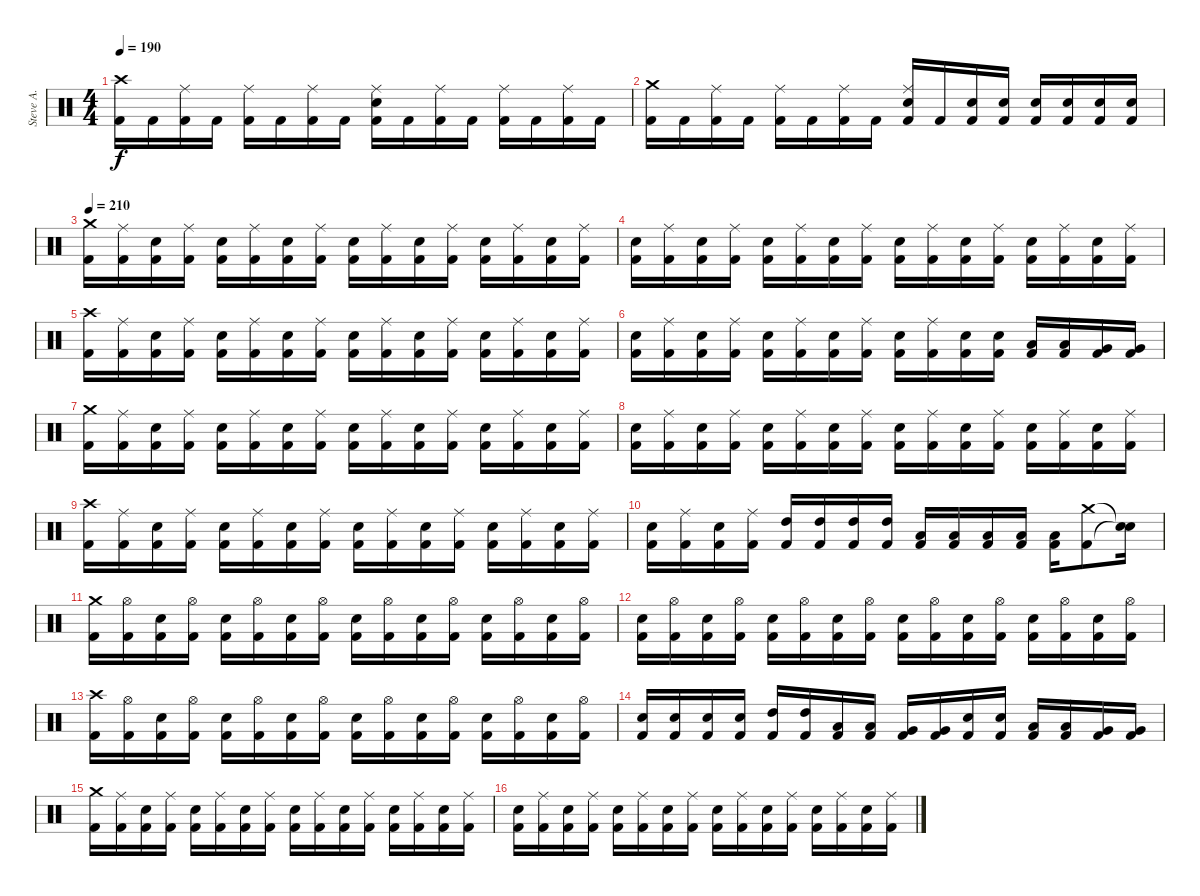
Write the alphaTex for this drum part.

\track ("Steve A." "Steve A.") {instrument percussion}
\staff {score}
\articulation defaults
\ts (4 4)
\tempo 190
\clef neutral
\ks c
("Kick (hit) 2" "Crash high (hit)").16{dy f} "Kick (hit) 2".16 ("Kick (hit) 2" "Ride (middle)").16 "Kick (hit) 2".16 ("Kick (hit) 2" "Ride (middle)").16 "Kick (hit) 2".16 ("Kick (hit) 2" "Ride (middle)").16 "Kick (hit) 2".16 ("Kick (hit) 2" "Ride (middle)" "Electric Snare (hit)").16 "Kick (hit) 2".16 ("Kick (hit) 2" "Ride (middle)").16 "Kick (hit) 2".16 ("Kick (hit) 2" "Ride (middle)").16 "Kick (hit) 2".16 ("Kick (hit) 2" "Ride (middle)").16 "Kick (hit) 2".16 |
("Kick (hit) 2" "Crash medium (hit)").16 "Kick (hit) 2".16 ("Kick (hit) 2" "Ride (middle)").16 "Kick (hit) 2".16 ("Kick (hit) 2" "Ride (middle)").16 "Kick (hit) 2".16 ("Kick (hit) 2" "Ride (middle)").16 "Kick (hit) 2".16 ("Kick (hit) 2" "Ride (middle)" "Electric Snare (hit)").16 "Kick (hit) 2".16 ("Kick (hit) 2" "Electric Snare (hit)").16 ("Kick (hit) 2" "Electric Snare (hit)").16 ("Kick (hit) 2" "Electric Snare (hit)").16 ("Kick (hit) 2" "Electric Snare (hit)").16 ("Kick (hit) 2" "Electric Snare (hit)").16 ("Kick (hit) 2" "Electric Snare (hit)").16 |
\tempo 210
("Kick (hit) 2" "Crash medium (hit)").16 ("Kick (hit) 2" "Ride (middle)").16 ("Kick (hit) 2" "Electric Snare (hit)").16 ("Kick (hit) 2" "Ride (middle)").16 ("Kick (hit) 2" "Electric Snare (hit)").16 ("Kick (hit) 2" "Ride (middle)").16 ("Kick (hit) 2" "Electric Snare (hit)").16 ("Kick (hit) 2" "Ride (middle)").16 ("Kick (hit) 2" "Electric Snare (hit)").16 ("Kick (hit) 2" "Ride (middle)").16 ("Kick (hit) 2" "Electric Snare (hit)").16 ("Kick (hit) 2" "Ride (middle)").16 ("Kick (hit) 2" "Electric Snare (hit)").16 ("Kick (hit) 2" "Ride (middle)").16 ("Kick (hit) 2" "Electric Snare (hit)").16 ("Kick (hit) 2" "Ride (middle)").16 |
("Kick (hit) 2" "Electric Snare (hit)").16 ("Kick (hit) 2" "Ride (middle)").16 ("Kick (hit) 2" "Electric Snare (hit)").16 ("Kick (hit) 2" "Ride (middle)").16 ("Kick (hit) 2" "Electric Snare (hit)").16 ("Kick (hit) 2" "Ride (middle)").16 ("Kick (hit) 2" "Electric Snare (hit)").16 ("Kick (hit) 2" "Ride (middle)").16 ("Kick (hit) 2" "Electric Snare (hit)").16 ("Kick (hit) 2" "Ride (middle)").16 ("Kick (hit) 2" "Electric Snare (hit)").16 ("Kick (hit) 2" "Ride (middle)").16 ("Kick (hit) 2" "Electric Snare (hit)").16 ("Kick (hit) 2" "Ride (middle)").16 ("Kick (hit) 2" "Electric Snare (hit)").16 ("Kick (hit) 2" "Ride (middle)").16 |
("Kick (hit) 2" "Crash high (hit)").16 ("Kick (hit) 2" "Ride (middle)").16 ("Kick (hit) 2" "Electric Snare (hit)").16 ("Kick (hit) 2" "Ride (middle)").16 ("Kick (hit) 2" "Electric Snare (hit)").16 ("Kick (hit) 2" "Ride (middle)").16 ("Kick (hit) 2" "Electric Snare (hit)").16 ("Kick (hit) 2" "Ride (middle)").16 ("Kick (hit) 2" "Electric Snare (hit)").16 ("Kick (hit) 2" "Ride (middle)").16 ("Kick (hit) 2" "Electric Snare (hit)").16 ("Kick (hit) 2" "Ride (middle)").16 ("Kick (hit) 2" "Electric Snare (hit)").16 ("Kick (hit) 2" "Ride (middle)").16 ("Kick (hit) 2" "Electric Snare (hit)").16 ("Kick (hit) 2" "Ride (middle)").16 |
("Kick (hit) 2" "Electric Snare (hit)").16 ("Kick (hit) 2" "Ride (middle)").16 ("Kick (hit) 2" "Electric Snare (hit)").16 ("Kick (hit) 2" "Ride (middle)").16 ("Kick (hit) 2" "Electric Snare (hit)").16 ("Kick (hit) 2" "Ride (middle)").16 ("Kick (hit) 2" "Electric Snare (hit)").16 ("Kick (hit) 2" "Ride (middle)").16 ("Kick (hit) 2" "Electric Snare (hit)").16 ("Kick (hit) 2" "Ride (middle)").16 ("Kick (hit) 2" "Electric Snare (hit)").16 ("Kick (hit) 2" "Electric Snare (hit)").16 ("Kick (hit) 2" "Low Tom (hit)").16 ("Kick (hit) 2" "Low Tom (hit)").16 ("Kick (hit) 2" "Very Low Tom (hit)").16 ("Kick (hit) 2" "Very Low Tom (hit)").16 |
("Kick (hit) 2" "Crash medium (hit)").16 ("Kick (hit) 2" "Ride (middle)").16 ("Kick (hit) 2" "Electric Snare (hit)").16 ("Kick (hit) 2" "Ride (middle)").16 ("Kick (hit) 2" "Electric Snare (hit)").16 ("Kick (hit) 2" "Ride (middle)").16 ("Kick (hit) 2" "Electric Snare (hit)").16 ("Kick (hit) 2" "Ride (middle)").16 ("Kick (hit) 2" "Electric Snare (hit)").16 ("Kick (hit) 2" "Ride (middle)").16 ("Kick (hit) 2" "Electric Snare (hit)").16 ("Kick (hit) 2" "Ride (middle)").16 ("Kick (hit) 2" "Electric Snare (hit)").16 ("Kick (hit) 2" "Ride (middle)").16 ("Kick (hit) 2" "Electric Snare (hit)").16 ("Kick (hit) 2" "Ride (middle)").16 |
("Kick (hit) 2" "Electric Snare (hit)").16 ("Kick (hit) 2" "Ride (middle)").16 ("Kick (hit) 2" "Electric Snare (hit)").16 ("Kick (hit) 2" "Ride (middle)").16 ("Kick (hit) 2" "Electric Snare (hit)").16 ("Kick (hit) 2" "Ride (middle)").16 ("Kick (hit) 2" "Electric Snare (hit)").16 ("Kick (hit) 2" "Ride (middle)").16 ("Kick (hit) 2" "Electric Snare (hit)").16 ("Kick (hit) 2" "Ride (middle)").16 ("Kick (hit) 2" "Electric Snare (hit)").16 ("Kick (hit) 2" "Ride (middle)").16 ("Kick (hit) 2" "Electric Snare (hit)").16 ("Kick (hit) 2" "Ride (middle)").16 ("Kick (hit) 2" "Electric Snare (hit)").16 ("Kick (hit) 2" "Ride (middle)").16 |
("Kick (hit) 2" "Crash high (hit)").16 ("Kick (hit) 2" "Ride (middle)").16 ("Kick (hit) 2" "Electric Snare (hit)").16 ("Kick (hit) 2" "Ride (middle)").16 ("Kick (hit) 2" "Electric Snare (hit)").16 ("Kick (hit) 2" "Ride (middle)").16 ("Kick (hit) 2" "Electric Snare (hit)").16 ("Kick (hit) 2" "Ride (middle)").16 ("Kick (hit) 2" "Electric Snare (hit)").16 ("Kick (hit) 2" "Ride (middle)").16 ("Kick (hit) 2" "Electric Snare (hit)").16 ("Kick (hit) 2" "Ride (middle)").16 ("Kick (hit) 2" "Electric Snare (hit)").16 ("Kick (hit) 2" "Ride (middle)").16 ("Kick (hit) 2" "Electric Snare (hit)").16 ("Kick (hit) 2" "Ride (middle)").16 |
("Kick (hit) 2" "Electric Snare (hit)").16 ("Kick (hit) 2" "Ride (middle)").16 ("Kick (hit) 2" "Electric Snare (hit)").16 ("Kick (hit) 2" "Ride (middle)").16 ("Kick (hit) 2" "High Tom (hit)").16 ("Kick (hit) 2" "High Tom (hit)").16 ("Kick (hit) 2" "High Tom (hit)").16 ("Kick (hit) 2" "High Tom (hit)").16 ("Kick (hit) 2" "Low Tom (hit)").16 ("Kick (hit) 2" "Low Tom (hit)").16 ("Kick (hit) 2" "Low Tom (hit)").16 ("Kick (hit) 2" "Low Tom (hit)").16 ("Kick (hit) 2" "Low Tom (hit)").16 ("Kick (hit) 2" "Crash medium (hit)").8 ("Snare (hit)"{t} "Snare (hit)"{t}).16 |
("Kick (hit) 2" "Crash medium (hit)").16 ("Kick (hit) 2" "Hi-Hat (open)").16 ("Kick (hit) 2" "Electric Snare (hit)").16 ("Kick (hit) 2" "Hi-Hat (open)").16 ("Kick (hit) 2" "Electric Snare (hit)").16 ("Kick (hit) 2" "Hi-Hat (open)").16 ("Kick (hit) 2" "Electric Snare (hit)").16 ("Kick (hit) 2" "Hi-Hat (open)").16 ("Kick (hit) 2" "Electric Snare (hit)").16 ("Kick (hit) 2" "Hi-Hat (open)").16 ("Kick (hit) 2" "Electric Snare (hit)").16 ("Kick (hit) 2" "Hi-Hat (open)").16 ("Kick (hit) 2" "Electric Snare (hit)").16 ("Kick (hit) 2" "Hi-Hat (open)").16 ("Kick (hit) 2" "Electric Snare (hit)").16 ("Kick (hit) 2" "Hi-Hat (open)").16 |
("Kick (hit) 2" "Electric Snare (hit)").16 ("Kick (hit) 2" "Hi-Hat (open)").16 ("Kick (hit) 2" "Electric Snare (hit)").16 ("Kick (hit) 2" "Hi-Hat (open)").16 ("Kick (hit) 2" "Electric Snare (hit)").16 ("Kick (hit) 2" "Hi-Hat (open)").16 ("Kick (hit) 2" "Electric Snare (hit)").16 ("Kick (hit) 2" "Hi-Hat (open)").16 ("Kick (hit) 2" "Electric Snare (hit)").16 ("Kick (hit) 2" "Hi-Hat (open)").16 ("Kick (hit) 2" "Electric Snare (hit)").16 ("Kick (hit) 2" "Hi-Hat (open)").16 ("Kick (hit) 2" "Electric Snare (hit)").16 ("Kick (hit) 2" "Hi-Hat (open)").16 ("Kick (hit) 2" "Electric Snare (hit)").16 ("Kick (hit) 2" "Hi-Hat (open)").16 |
("Kick (hit) 2" "Crash high (hit)").16 ("Kick (hit) 2" "Hi-Hat (open)").16 ("Kick (hit) 2" "Electric Snare (hit)").16 ("Kick (hit) 2" "Hi-Hat (open)").16 ("Kick (hit) 2" "Electric Snare (hit)").16 ("Kick (hit) 2" "Hi-Hat (open)").16 ("Kick (hit) 2" "Electric Snare (hit)").16 ("Kick (hit) 2" "Hi-Hat (open)").16 ("Kick (hit) 2" "Electric Snare (hit)").16 ("Kick (hit) 2" "Hi-Hat (open)").16 ("Kick (hit) 2" "Electric Snare (hit)").16 ("Kick (hit) 2" "Hi-Hat (open)").16 ("Kick (hit) 2" "Electric Snare (hit)").16 ("Kick (hit) 2" "Hi-Hat (open)").16 ("Kick (hit) 2" "Electric Snare (hit)").16 ("Kick (hit) 2" "Hi-Hat (open)").16 |
("Kick (hit) 2" "Electric Snare (hit)").16 ("Kick (hit) 2" "Electric Snare (hit)").16 ("Kick (hit) 2" "Electric Snare (hit)").16 ("Kick (hit) 2" "Electric Snare (hit)").16 ("Kick (hit) 2" "High Tom (hit)").16 ("Kick (hit) 2" "High Tom (hit)").16 ("Kick (hit) 2" "Low Tom (hit)").16 ("Kick (hit) 2" "Low Tom (hit)").16 ("Kick (hit) 2" "Very Low Tom (hit)").16 ("Kick (hit) 2" "Very Low Tom (hit)").16 ("Kick (hit) 2" "Electric Snare (hit)").16 ("Kick (hit) 2" "Electric Snare (hit)").16 ("Kick (hit) 2" "Low Tom (hit)").16 ("Kick (hit) 2" "Low Tom (hit)").16 ("Kick (hit) 2" "Very Low Tom (hit)").16 ("Kick (hit) 2" "Very Low Tom (hit)").16 |
("Kick (hit) 2" "Crash medium (hit)").16 ("Kick (hit) 2" "Ride (middle)").16 ("Kick (hit) 2" "Electric Snare (hit)").16 ("Kick (hit) 2" "Ride (middle)").16 ("Kick (hit) 2" "Electric Snare (hit)").16 ("Kick (hit) 2" "Ride (middle)").16 ("Kick (hit) 2" "Electric Snare (hit)").16 ("Kick (hit) 2" "Ride (middle)").16 ("Kick (hit) 2" "Electric Snare (hit)").16 ("Kick (hit) 2" "Ride (middle)").16 ("Kick (hit) 2" "Electric Snare (hit)").16 ("Kick (hit) 2" "Ride (middle)").16 ("Kick (hit) 2" "Electric Snare (hit)").16 ("Kick (hit) 2" "Ride (middle)").16 ("Kick (hit) 2" "Electric Snare (hit)").16 ("Kick (hit) 2" "Ride (middle)").16 |
("Kick (hit) 2" "Electric Snare (hit)").16 ("Kick (hit) 2" "Ride (middle)").16 ("Kick (hit) 2" "Electric Snare (hit)").16 ("Kick (hit) 2" "Ride (middle)").16 ("Kick (hit) 2" "Electric Snare (hit)").16 ("Kick (hit) 2" "Ride (middle)").16 ("Kick (hit) 2" "Electric Snare (hit)").16 ("Kick (hit) 2" "Ride (middle)").16 ("Kick (hit) 2" "Electric Snare (hit)").16 ("Kick (hit) 2" "Ride (middle)").16 ("Kick (hit) 2" "Electric Snare (hit)").16 ("Kick (hit) 2" "Ride (middle)").16 ("Kick (hit) 2" "Electric Snare (hit)").16 ("Kick (hit) 2" "Ride (middle)").16 ("Kick (hit) 2" "Electric Snare (hit)").16 ("Kick (hit) 2" "Ride (middle)").16
